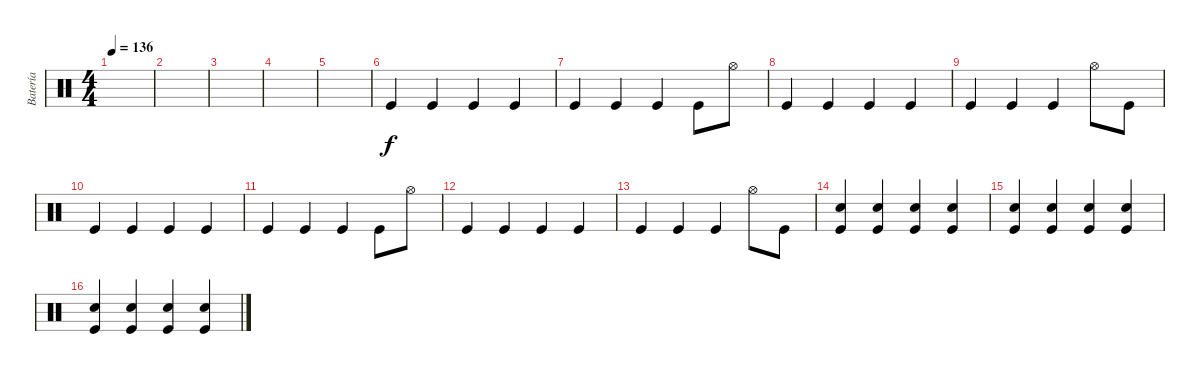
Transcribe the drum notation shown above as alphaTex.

\track ("Batería" "Batería") {instrument percussion}
\staff {score}
\articulation defaults
\ts (4 4)
\tempo 136
\clef neutral
\ks c
|
|
|
|
|
"Kick (hit)".4 "Kick (hit)".4 "Kick (hit)".4 "Kick (hit)".4 |
"Kick (hit)".4 "Kick (hit)".4 "Kick (hit)".4 "Kick (hit)".8 "Hi-Hat (open)".8 |
"Kick (hit)".4 "Kick (hit)".4 "Kick (hit)".4 "Kick (hit)".4 |
"Kick (hit)".4 "Kick (hit)".4 "Kick (hit)".4 "Hi-Hat (open)".8 "Kick (hit)".8 |
"Kick (hit)".4 "Kick (hit)".4 "Kick (hit)".4 "Kick (hit)".4 |
"Kick (hit)".4 "Kick (hit)".4 "Kick (hit)".4 "Kick (hit)".8 "Hi-Hat (open)".8 |
"Kick (hit)".4 "Kick (hit)".4 "Kick (hit)".4 "Kick (hit)".4 |
"Kick (hit)".4 "Kick (hit)".4 "Kick (hit)".4 "Hi-Hat (open)".8 "Kick (hit)".8 |
("Snare (hit) 2" "Kick (hit)").4 ("Snare (hit) 2" "Kick (hit)").4 ("Snare (hit) 2" "Kick (hit)").4 ("Snare (hit) 2" "Kick (hit)").4 |
("Snare (hit) 2" "Kick (hit)").4 ("Snare (hit) 2" "Kick (hit)").4 ("Snare (hit) 2" "Kick (hit)").4 ("Snare (hit) 2" "Kick (hit)").4 |
("Snare (hit) 2" "Kick (hit)").4 ("Snare (hit) 2" "Kick (hit)").4 ("Snare (hit) 2" "Kick (hit)").4 ("Snare (hit) 2" "Kick (hit)").4
